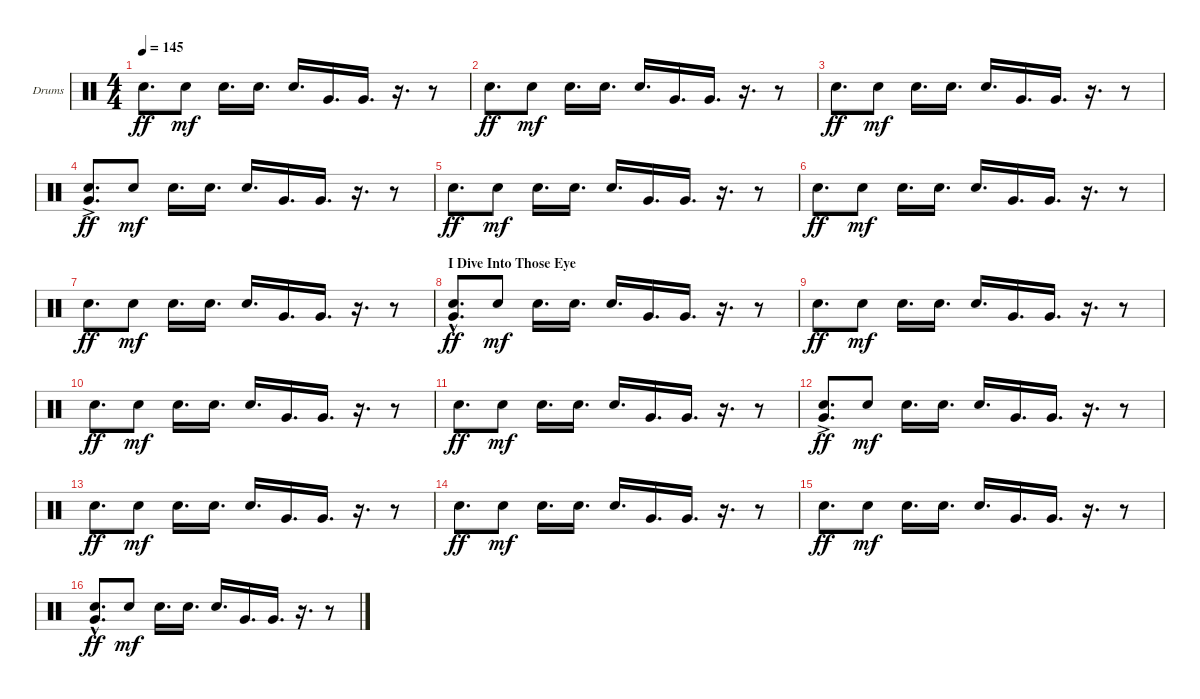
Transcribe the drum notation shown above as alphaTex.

\defaultSystemsLayout 4
\bracketExtendMode groupsimilarinstruments
\firstSystemTrackNameOrientation horizontal
\otherSystemsTrackNameOrientation horizontal
\track ("Drumkit" "Drums") {instrument percussion}
\staff {score}
\articulation defaults
\ts (4 4)
\tempo 145
\clef neutral
\ks c "Snare (hit) 2".8{d dy ff} "Snare (hit) 2".8{dy mf} "Snare (hit) 2".16{d} "Snare (hit) 2".16{d} "Snare (hit) 2".16{d} "Very Low Tom (hit)".16{d} "Very Low Tom (hit)".16{d}
r.16{d} r.8 |
"Snare (hit) 2".8{d dy ff} "Snare (hit) 2".8{dy mf} "Snare (hit) 2".16{d} "Snare (hit) 2".16{d} "Snare (hit) 2".16{d} "Very Low Tom (hit)".16{d} "Very Low Tom (hit)".16{d} r.16{d} r.8 |
"Snare (hit) 2".8{d dy ff} "Snare (hit) 2".8{dy mf} "Snare (hit) 2".16{d} "Snare (hit) 2".16{d} "Snare (hit) 2".16{d} "Very Low Tom (hit)".16{d} "Very Low Tom (hit)".16{d} r.16{d} r.8 |
("Snare (hit) 2" "Very Low Tom (hit)"{ac}).8{d dy ff} "Snare (hit) 2".8{dy mf} "Snare (hit) 2".16{d} "Snare (hit) 2".16{d} "Snare (hit) 2".16{d} "Very Low Tom (hit)".16{d} "Very Low Tom (hit)".16{d} r.16{d} r.8 |
"Snare (hit) 2".8{d dy ff} "Snare (hit) 2".8{dy mf} "Snare (hit) 2".16{d} "Snare (hit) 2".16{d} "Snare (hit) 2".16{d} "Very Low Tom (hit)".16{d} "Very Low Tom (hit)".16{d} r.16{d} r.8 |
"Snare (hit) 2".8{d dy ff} "Snare (hit) 2".8{dy mf} "Snare (hit) 2".16{d} "Snare (hit) 2".16{d} "Snare (hit) 2".16{d} "Very Low Tom (hit)".16{d} "Very Low Tom (hit)".16{d} r.16{d} r.8 |
"Snare (hit) 2".8{d dy ff} "Snare (hit) 2".8{dy mf} "Snare (hit) 2".16{d} "Snare (hit) 2".16{d} "Snare (hit) 2".16{d} "Very Low Tom (hit)".16{d} "Very Low Tom (hit)".16{d} r.16{d} r.8 |
\section ("" "I Dive Into Those Eye")
("Snare (hit) 2" "Very Low Tom (hit)"{hac}).8{d dy ff} "Snare (hit) 2".8{dy mf} "Snare (hit) 2".16{d} "Snare (hit) 2".16{d} "Snare (hit) 2".16{d} "Very Low Tom (hit)".16{d} "Very Low Tom (hit)".16{d} r.16{d} r.8 |
"Snare (hit) 2".8{d dy ff} "Snare (hit) 2".8{dy mf} "Snare (hit) 2".16{d} "Snare (hit) 2".16{d} "Snare (hit) 2".16{d} "Very Low Tom (hit)".16{d} "Very Low Tom (hit)".16{d} r.16{d} r.8 |
"Snare (hit) 2".8{d dy ff} "Snare (hit) 2".8{dy mf} "Snare (hit) 2".16{d} "Snare (hit) 2".16{d} "Snare (hit) 2".16{d} "Very Low Tom (hit)".16{d} "Very Low Tom (hit)".16{d} r.16{d} r.8 |
"Snare (hit) 2".8{d dy ff} "Snare (hit) 2".8{dy mf} "Snare (hit) 2".16{d} "Snare (hit) 2".16{d} "Snare (hit) 2".16{d} "Very Low Tom (hit)".16{d} "Very Low Tom (hit)".16{d} r.16{d} r.8 |
("Snare (hit) 2" "Very Low Tom (hit)"{ac}).8{d dy ff} "Snare (hit) 2".8{dy mf} "Snare (hit) 2".16{d} "Snare (hit) 2".16{d} "Snare (hit) 2".16{d} "Very Low Tom (hit)".16{d} "Very Low Tom (hit)".16{d} r.16{d} r.8 |
"Snare (hit) 2".8{d dy ff} "Snare (hit) 2".8{dy mf} "Snare (hit) 2".16{d} "Snare (hit) 2".16{d} "Snare (hit) 2".16{d} "Very Low Tom (hit)".16{d} "Very Low Tom (hit)".16{d} r.16{d} r.8 |
"Snare (hit) 2".8{d dy ff} "Snare (hit) 2".8{dy mf} "Snare (hit) 2".16{d} "Snare (hit) 2".16{d} "Snare (hit) 2".16{d} "Very Low Tom (hit)".16{d} "Very Low Tom (hit)".16{d} r.16{d} r.8 |
"Snare (hit) 2".8{d dy ff} "Snare (hit) 2".8{dy mf} "Snare (hit) 2".16{d} "Snare (hit) 2".16{d} "Snare (hit) 2".16{d} "Very Low Tom (hit)".16{d} "Very Low Tom (hit)".16{d} r.16{d} r.8 |
("Snare (hit) 2" "Very Low Tom (hit)"{hac}).8{d dy ff} "Snare (hit) 2".8{dy mf} "Snare (hit) 2".16{d} "Snare (hit) 2".16{d} "Snare (hit) 2".16{d} "Very Low Tom (hit)".16{d} "Very Low Tom (hit)".16{d} r.16{d} r.8
